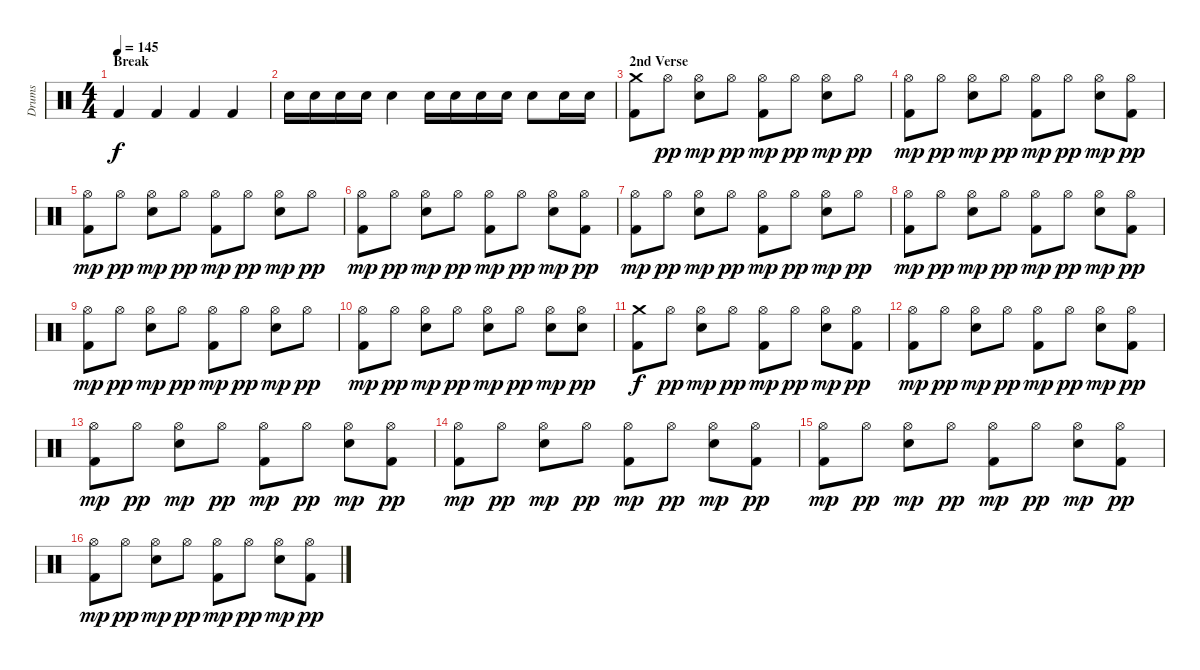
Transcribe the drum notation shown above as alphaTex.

\track ("Drums" "Drums") {instrument percussion}
\staff {score}
\articulation defaults
\ts (4 4)
\section ("" "Break")
\tempo 145
\clef neutral
\ks c "Kick (hit) 2".4{dy f} "Kick (hit) 2".4 "Kick (hit) 2".4 "Kick (hit) 2".4
|
"Snare (hit) 2".16 "Snare (hit) 2".16 "Snare (hit) 2".16 "Snare (hit) 2".16 "Snare (hit) 2".4 "Snare (hit) 2".16 "Snare (hit) 2".16 "Snare (hit) 2".16 "Snare (hit) 2".16 "Snare (hit) 2".8 "Snare (hit) 2".16 "Snare (hit) 2".16 |
\section ("" "2nd Verse")
("Crash medium (hit)" "Kick (hit) 2").8 "Hi-Hat (open)".8{dy pp} ("Hi-Hat (open)" "Snare (hit) 2").8{dy mp} "Hi-Hat (open)".8{dy pp} ("Hi-Hat (open)" "Kick (hit) 2").8{dy mp} "Hi-Hat (open)".8{dy pp} ("Hi-Hat (open)" "Snare (hit) 2").8{dy mp} "Hi-Hat (open)".8{dy pp} |
("Hi-Hat (open)" "Kick (hit) 2").8{dy mp} "Hi-Hat (open)".8{dy pp} ("Hi-Hat (open)" "Snare (hit) 2").8{dy mp} "Hi-Hat (open)".8{dy pp} ("Hi-Hat (open)" "Kick (hit) 2").8{dy mp} "Hi-Hat (open)".8{dy pp} ("Hi-Hat (open)" "Snare (hit) 2").8{dy mp} ("Hi-Hat (open)" "Kick (hit) 2").8{dy pp} |
("Hi-Hat (open)" "Kick (hit) 2").8{dy mp} "Hi-Hat (open)".8{dy pp} ("Hi-Hat (open)" "Snare (hit) 2").8{dy mp} "Hi-Hat (open)".8{dy pp} ("Hi-Hat (open)" "Kick (hit) 2").8{dy mp} "Hi-Hat (open)".8{dy pp} ("Hi-Hat (open)" "Snare (hit) 2").8{dy mp} "Hi-Hat (open)".8{dy pp} |
("Hi-Hat (open)" "Kick (hit) 2").8{dy mp} "Hi-Hat (open)".8{dy pp} ("Hi-Hat (open)" "Snare (hit) 2").8{dy mp} "Hi-Hat (open)".8{dy pp} ("Hi-Hat (open)" "Kick (hit) 2").8{dy mp} "Hi-Hat (open)".8{dy pp} ("Hi-Hat (open)" "Snare (hit) 2").8{dy mp} ("Hi-Hat (open)" "Kick (hit) 2").8{dy pp} |
("Hi-Hat (open)" "Kick (hit) 2").8{dy mp} "Hi-Hat (open)".8{dy pp} ("Hi-Hat (open)" "Snare (hit) 2").8{dy mp} "Hi-Hat (open)".8{dy pp} ("Hi-Hat (open)" "Kick (hit) 2").8{dy mp} "Hi-Hat (open)".8{dy pp} ("Hi-Hat (open)" "Snare (hit) 2").8{dy mp} "Hi-Hat (open)".8{dy pp} |
("Hi-Hat (open)" "Kick (hit) 2").8{dy mp} "Hi-Hat (open)".8{dy pp} ("Hi-Hat (open)" "Snare (hit) 2").8{dy mp} "Hi-Hat (open)".8{dy pp} ("Hi-Hat (open)" "Kick (hit) 2").8{dy mp} "Hi-Hat (open)".8{dy pp} ("Hi-Hat (open)" "Snare (hit) 2").8{dy mp} ("Hi-Hat (open)" "Kick (hit) 2").8{dy pp} |
("Hi-Hat (open)" "Kick (hit) 2").8{dy mp} "Hi-Hat (open)".8{dy pp} ("Hi-Hat (open)" "Snare (hit) 2").8{dy mp} "Hi-Hat (open)".8{dy pp} ("Hi-Hat (open)" "Kick (hit) 2").8{dy mp} "Hi-Hat (open)".8{dy pp} ("Hi-Hat (open)" "Snare (hit) 2").8{dy mp} "Hi-Hat (open)".8{dy pp} |
("Hi-Hat (open)" "Kick (hit) 2").8{dy mp} "Hi-Hat (open)".8{dy pp} ("Hi-Hat (open)" "Snare (hit) 2").8{dy mp} "Hi-Hat (open)".8{dy pp} ("Hi-Hat (open)" "Snare (hit) 2").8{dy mp} "Hi-Hat (open)".8{dy pp} ("Hi-Hat (open)" "Snare (hit) 2").8{dy mp} ("Hi-Hat (open)" "Snare (hit) 2").8{dy pp} |
("Crash medium (hit)" "Kick (hit) 2").8{dy f} "Hi-Hat (open)".8{dy pp} ("Hi-Hat (open)" "Snare (hit) 2").8{dy mp} "Hi-Hat (open)".8{dy pp} ("Hi-Hat (open)" "Kick (hit) 2").8{dy mp} "Hi-Hat (open)".8{dy pp} ("Hi-Hat (open)" "Snare (hit) 2").8{dy mp} ("Hi-Hat (open)" "Kick (hit) 2").8{dy pp} |
("Hi-Hat (open)" "Kick (hit) 2").8{dy mp} "Hi-Hat (open)".8{dy pp} ("Hi-Hat (open)" "Snare (hit) 2").8{dy mp} "Hi-Hat (open)".8{dy pp} ("Hi-Hat (open)" "Kick (hit) 2").8{dy mp} "Hi-Hat (open)".8{dy pp} ("Hi-Hat (open)" "Snare (hit) 2").8{dy mp} ("Hi-Hat (open)" "Kick (hit) 2").8{dy pp} |
("Hi-Hat (open)" "Kick (hit) 2").8{dy mp} "Hi-Hat (open)".8{dy pp} ("Hi-Hat (open)" "Snare (hit) 2").8{dy mp} "Hi-Hat (open)".8{dy pp} ("Hi-Hat (open)" "Kick (hit) 2").8{dy mp} "Hi-Hat (open)".8{dy pp} ("Hi-Hat (open)" "Snare (hit) 2").8{dy mp} ("Hi-Hat (open)" "Kick (hit) 2").8{dy pp} |
("Hi-Hat (open)" "Kick (hit) 2").8{dy mp} "Hi-Hat (open)".8{dy pp} ("Hi-Hat (open)" "Snare (hit) 2").8{dy mp} "Hi-Hat (open)".8{dy pp} ("Hi-Hat (open)" "Kick (hit) 2").8{dy mp} "Hi-Hat (open)".8{dy pp} ("Hi-Hat (open)" "Snare (hit) 2").8{dy mp} ("Hi-Hat (open)" "Kick (hit) 2").8{dy pp} |
("Hi-Hat (open)" "Kick (hit) 2").8{dy mp} "Hi-Hat (open)".8{dy pp} ("Hi-Hat (open)" "Snare (hit) 2").8{dy mp} "Hi-Hat (open)".8{dy pp} ("Hi-Hat (open)" "Kick (hit) 2").8{dy mp} "Hi-Hat (open)".8{dy pp} ("Hi-Hat (open)" "Snare (hit) 2").8{dy mp} ("Hi-Hat (open)" "Kick (hit) 2").8{dy pp} |
("Hi-Hat (open)" "Kick (hit) 2").8{dy mp} "Hi-Hat (open)".8{dy pp} ("Hi-Hat (open)" "Snare (hit) 2").8{dy mp} "Hi-Hat (open)".8{dy pp} ("Hi-Hat (open)" "Kick (hit) 2").8{dy mp} "Hi-Hat (open)".8{dy pp} ("Hi-Hat (open)" "Snare (hit) 2").8{dy mp} ("Hi-Hat (open)" "Kick (hit) 2").8{dy pp}
